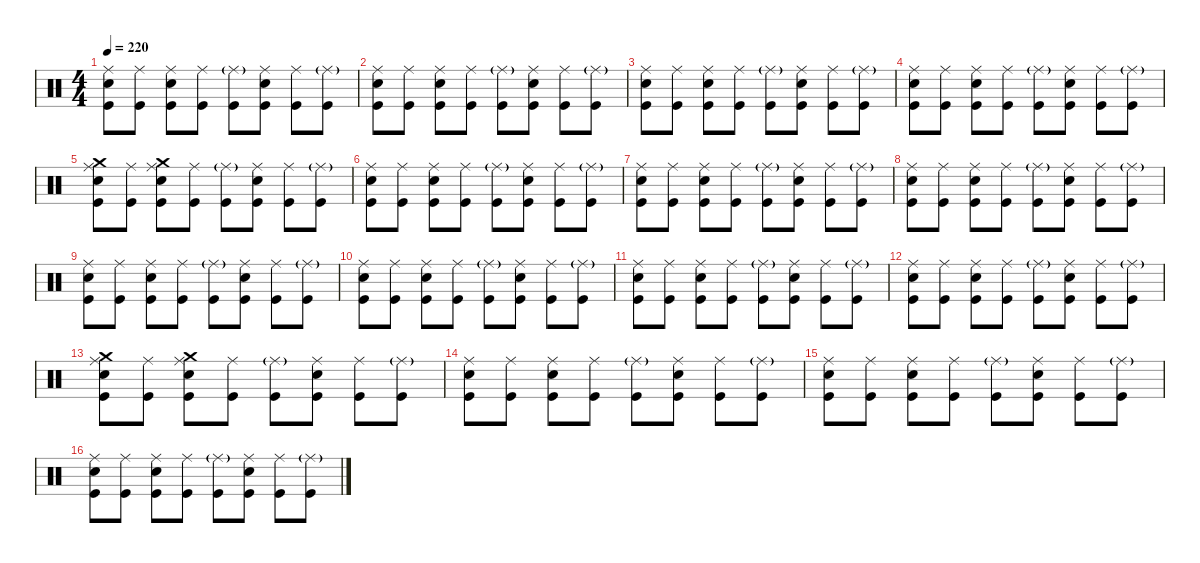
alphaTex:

\defaultSystemsLayout 4
\hideDynamics
\bracketExtendMode nobrackets
\singleTrackTrackNamePolicy hidden
\multiTrackTrackNamePolicy hidden
\firstSystemTrackNameMode fullname
\firstSystemTrackNameOrientation horizontal
\otherSystemsTrackNameOrientation horizontal
\track ("Drums" "drm.") {instrument percussion}
\staff {score}
\articulation defaults
\ts (4 4)
\tempo 220
\clef neutral
\ks c
("Ride (middle)" "Snare (hit) 2" "Kick (hit)").8{dy mf beam Down} ("Ride (middle)" "Kick (hit)").8{beam Down} ("Ride (middle)" "Snare (hit) 2" "Kick (hit)").8{beam Down} ("Ride (middle)" "Kick (hit)").8{beam Down} ("Ride (middle)"{g} "Kick (hit)").8{dy f beam Down} ("Ride (middle)" "Snare (hit) 2" "Kick (hit)").8{dy mf beam Down} ("Ride (middle)" "Kick (hit)").8{beam Down} ("Ride (middle)"{g} "Kick (hit)").8{dy f beam Down} |
("Ride (middle)" "Snare (hit) 2" "Kick (hit)").8{dy mf beam Down} ("Ride (middle)" "Kick (hit)").8{beam Down} ("Ride (middle)" "Snare (hit) 2" "Kick (hit)").8{beam Down} ("Ride (middle)" "Kick (hit)").8{beam Down} ("Ride (middle)"{g} "Kick (hit)").8{dy f beam Down} ("Ride (middle)" "Snare (hit) 2" "Kick (hit)").8{dy mf beam Down} ("Ride (middle)" "Kick (hit)").8{beam Down} ("Ride (middle)"{g} "Kick (hit)").8{dy f beam Down} |
("Ride (middle)" "Snare (hit) 2" "Kick (hit)").8{dy mf beam Down} ("Ride (middle)" "Kick (hit)").8{beam Down} ("Ride (middle)" "Snare (hit) 2" "Kick (hit)").8{beam Down} ("Ride (middle)" "Kick (hit)").8{beam Down} ("Ride (middle)"{g} "Kick (hit)").8{dy f beam Down} ("Ride (middle)" "Snare (hit) 2" "Kick (hit)").8{dy mf beam Down} ("Ride (middle)" "Kick (hit)").8{beam Down} ("Ride (middle)"{g} "Kick (hit)").8{dy f beam Down} |
("Ride (middle)" "Snare (hit) 2" "Kick (hit)").8{dy mf beam Down} ("Ride (middle)" "Kick (hit)").8{beam Down} ("Ride (middle)" "Snare (hit) 2" "Kick (hit)").8{beam Down} ("Ride (middle)" "Kick (hit)").8{beam Down} ("Ride (middle)"{g} "Kick (hit)").8{dy f beam Down} ("Ride (middle)" "Snare (hit) 2" "Kick (hit)").8{dy mf beam Down} ("Ride (middle)" "Kick (hit)").8{beam Down} ("Ride (middle)"{g} "Kick (hit)").8{dy f beam Down} |
("Crash medium (hit)" "Ride (middle)" "Snare (hit) 2" "Kick (hit)").8{beam Down} ("Ride (middle)" "Kick (hit)").8{dy mf beam Down} ("Crash medium (hit)" "Ride (middle)" "Snare (hit) 2" "Kick (hit)").8{dy f beam Down} ("Ride (middle)" "Kick (hit)").8{dy mf beam Down} ("Ride (middle)"{g} "Kick (hit)").8{dy f beam Down} ("Ride (middle)" "Snare (hit) 2" "Kick (hit)").8{dy mf beam Down} ("Ride (middle)" "Kick (hit)").8{beam Down} ("Ride (middle)"{g} "Kick (hit)").8{dy f beam Down} |
("Ride (middle)" "Snare (hit) 2" "Kick (hit)").8{dy mf beam Down} ("Ride (middle)" "Kick (hit)").8{beam Down} ("Ride (middle)" "Snare (hit) 2" "Kick (hit)").8{beam Down} ("Ride (middle)" "Kick (hit)").8{beam Down} ("Ride (middle)"{g} "Kick (hit)").8{dy f beam Down} ("Ride (middle)" "Snare (hit) 2" "Kick (hit)").8{dy mf beam Down} ("Ride (middle)" "Kick (hit)").8{beam Down} ("Ride (middle)"{g} "Kick (hit)").8{dy f beam Down} |
("Ride (middle)" "Snare (hit) 2" "Kick (hit)").8{dy mf beam Down} ("Ride (middle)" "Kick (hit)").8{beam Down} ("Ride (middle)" "Snare (hit) 2" "Kick (hit)").8{beam Down} ("Ride (middle)" "Kick (hit)").8{beam Down} ("Ride (middle)"{g} "Kick (hit)").8{dy f beam Down} ("Ride (middle)" "Snare (hit) 2" "Kick (hit)").8{dy mf beam Down} ("Ride (middle)" "Kick (hit)").8{beam Down} ("Ride (middle)"{g} "Kick (hit)").8{dy f beam Down} |
("Ride (middle)" "Snare (hit) 2" "Kick (hit)").8{dy mf beam Down} ("Ride (middle)" "Kick (hit)").8{beam Down} ("Ride (middle)" "Snare (hit) 2" "Kick (hit)").8{beam Down} ("Ride (middle)" "Kick (hit)").8{beam Down} ("Ride (middle)"{g} "Kick (hit)").8{dy f beam Down} ("Ride (middle)" "Snare (hit) 2" "Kick (hit)").8{dy mf beam Down} ("Ride (middle)" "Kick (hit)").8{beam Down} ("Ride (middle)"{g} "Kick (hit)").8{dy f beam Down} |
("Ride (middle)" "Snare (hit) 2" "Kick (hit)").8{dy mf beam Down} ("Ride (middle)" "Kick (hit)").8{beam Down} ("Ride (middle)" "Snare (hit) 2" "Kick (hit)").8{beam Down} ("Ride (middle)" "Kick (hit)").8{beam Down} ("Ride (middle)"{g} "Kick (hit)").8{dy f beam Down} ("Ride (middle)" "Snare (hit) 2" "Kick (hit)").8{dy mf beam Down} ("Ride (middle)" "Kick (hit)").8{beam Down} ("Ride (middle)"{g} "Kick (hit)").8{dy f beam Down} |
("Ride (middle)" "Snare (hit) 2" "Kick (hit)").8{dy mf beam Down} ("Ride (middle)" "Kick (hit)").8{beam Down} ("Ride (middle)" "Snare (hit) 2" "Kick (hit)").8{beam Down} ("Ride (middle)" "Kick (hit)").8{beam Down} ("Ride (middle)"{g} "Kick (hit)").8{dy f beam Down} ("Ride (middle)" "Snare (hit) 2" "Kick (hit)").8{dy mf beam Down} ("Ride (middle)" "Kick (hit)").8{beam Down} ("Ride (middle)"{g} "Kick (hit)").8{dy f beam Down} |
("Ride (middle)" "Snare (hit) 2" "Kick (hit)").8{dy mf beam Down} ("Ride (middle)" "Kick (hit)").8{beam Down} ("Ride (middle)" "Snare (hit) 2" "Kick (hit)").8{beam Down} ("Ride (middle)" "Kick (hit)").8{beam Down} ("Ride (middle)"{g} "Kick (hit)").8{dy f beam Down} ("Ride (middle)" "Snare (hit) 2" "Kick (hit)").8{dy mf beam Down} ("Ride (middle)" "Kick (hit)").8{beam Down} ("Ride (middle)"{g} "Kick (hit)").8{dy f beam Down} |
("Ride (middle)" "Snare (hit) 2" "Kick (hit)").8{dy mf beam Down} ("Ride (middle)" "Kick (hit)").8{beam Down} ("Ride (middle)" "Snare (hit) 2" "Kick (hit)").8{beam Down} ("Ride (middle)" "Kick (hit)").8{beam Down} ("Ride (middle)"{g} "Kick (hit)").8{dy f beam Down} ("Ride (middle)" "Snare (hit) 2" "Kick (hit)").8{dy mf beam Down} ("Ride (middle)" "Kick (hit)").8{beam Down} ("Ride (middle)"{g} "Kick (hit)").8{dy f beam Down} |
("Crash medium (hit)" "Ride (middle)" "Snare (hit) 2" "Kick (hit)").8{beam Down} ("Ride (middle)" "Kick (hit)").8{dy mf beam Down} ("Crash medium (hit)" "Ride (middle)" "Snare (hit) 2" "Kick (hit)").8{dy f beam Down} ("Ride (middle)" "Kick (hit)").8{dy mf beam Down} ("Ride (middle)"{g} "Kick (hit)").8{dy f beam Down} ("Ride (middle)" "Snare (hit) 2" "Kick (hit)").8{dy mf beam Down} ("Ride (middle)" "Kick (hit)").8{beam Down} ("Ride (middle)"{g} "Kick (hit)").8{dy f beam Down} |
("Ride (middle)" "Snare (hit) 2" "Kick (hit)").8{dy mf beam Down} ("Ride (middle)" "Kick (hit)").8{beam Down} ("Ride (middle)" "Snare (hit) 2" "Kick (hit)").8{beam Down} ("Ride (middle)" "Kick (hit)").8{beam Down} ("Ride (middle)"{g} "Kick (hit)").8{dy f beam Down} ("Ride (middle)" "Snare (hit) 2" "Kick (hit)").8{dy mf beam Down} ("Ride (middle)" "Kick (hit)").8{beam Down} ("Ride (middle)"{g} "Kick (hit)").8{dy f beam Down} |
("Ride (middle)" "Snare (hit) 2" "Kick (hit)").8{dy mf beam Down} ("Ride (middle)" "Kick (hit)").8{beam Down} ("Ride (middle)" "Snare (hit) 2" "Kick (hit)").8{beam Down} ("Ride (middle)" "Kick (hit)").8{beam Down} ("Ride (middle)"{g} "Kick (hit)").8{dy f beam Down} ("Ride (middle)" "Snare (hit) 2" "Kick (hit)").8{dy mf beam Down} ("Ride (middle)" "Kick (hit)").8{beam Down} ("Ride (middle)"{g} "Kick (hit)").8{dy f beam Down} |
("Ride (middle)" "Snare (hit) 2" "Kick (hit)").8{dy mf beam Down} ("Ride (middle)" "Kick (hit)").8{beam Down} ("Ride (middle)" "Snare (hit) 2" "Kick (hit)").8{beam Down} ("Ride (middle)" "Kick (hit)").8{beam Down} ("Ride (middle)"{g} "Kick (hit)").8{dy f beam Down} ("Ride (middle)" "Snare (hit) 2" "Kick (hit)").8{dy mf beam Down} ("Ride (middle)" "Kick (hit)").8{beam Down} ("Ride (middle)"{g} "Kick (hit)").8{dy f beam Down}
